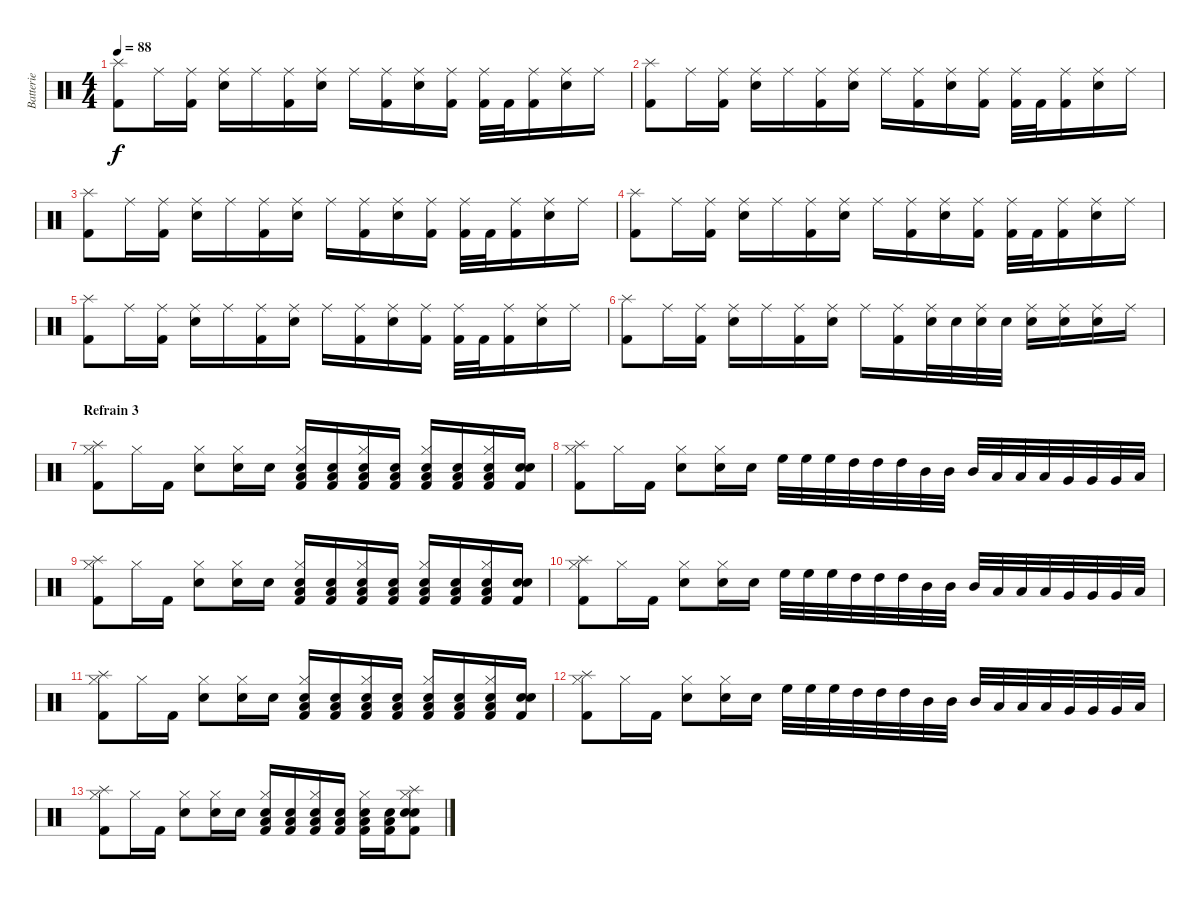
\track ("Batterie" "Batterie") {instrument percussion}
\staff {score}
\articulation defaults
\ts (4 4)
\tempo 88
\clef neutral
\ks c
("Splash (hit)" "Kick (hit) 2").8{dy f} "Ride (middle)".16 ("Ride (middle)" "Kick (hit) 2").16 ("Ride (middle)" "Snare (hit) 2").16 "Ride (middle)".16 ("Ride (middle)" "Kick (hit) 2").16 ("Ride (middle)" "Snare (hit) 2").16 "Ride (middle)".16 ("Ride (middle)" "Kick (hit) 2").16 ("Ride (middle)" "Snare (hit) 2").16 ("Ride (middle)" "Kick (hit) 2").16 ("Ride (middle)" "Kick (hit) 2").32 "Kick (hit) 2".32 ("Ride (middle)" "Kick (hit) 2").16 ("Ride (middle)" "Snare (hit) 2").16 "Ride (middle)".16 |
("Splash (hit)" "Kick (hit) 2").8 "Ride (middle)".16 ("Ride (middle)" "Kick (hit) 2").16 ("Ride (middle)" "Snare (hit) 2").16 "Ride (middle)".16 ("Ride (middle)" "Kick (hit) 2").16 ("Ride (middle)" "Snare (hit) 2").16 "Ride (middle)".16 ("Ride (middle)" "Kick (hit) 2").16 ("Ride (middle)" "Snare (hit) 2").16 ("Ride (middle)" "Kick (hit) 2").16 ("Ride (middle)" "Kick (hit) 2").32 "Kick (hit) 2".32 ("Ride (middle)" "Kick (hit) 2").16 ("Ride (middle)" "Snare (hit) 2").16 "Ride (middle)".16 |
("Splash (hit)" "Kick (hit) 2").8 "Ride (middle)".16 ("Ride (middle)" "Kick (hit) 2").16 ("Ride (middle)" "Snare (hit) 2").16 "Ride (middle)".16 ("Ride (middle)" "Kick (hit) 2").16 ("Ride (middle)" "Snare (hit) 2").16 "Ride (middle)".16 ("Ride (middle)" "Kick (hit) 2").16 ("Ride (middle)" "Snare (hit) 2").16 ("Ride (middle)" "Kick (hit) 2").16 ("Ride (middle)" "Kick (hit) 2").32 "Kick (hit) 2".32 ("Ride (middle)" "Kick (hit) 2").16 ("Ride (middle)" "Snare (hit) 2").16 "Ride (middle)".16 |
("Splash (hit)" "Kick (hit) 2").8 "Ride (middle)".16 ("Ride (middle)" "Kick (hit) 2").16 ("Ride (middle)" "Snare (hit) 2").16 "Ride (middle)".16 ("Ride (middle)" "Kick (hit) 2").16 ("Ride (middle)" "Snare (hit) 2").16 "Ride (middle)".16 ("Ride (middle)" "Kick (hit) 2").16 ("Ride (middle)" "Snare (hit) 2").16 ("Ride (middle)" "Kick (hit) 2").16 ("Ride (middle)" "Kick (hit) 2").32 "Kick (hit) 2".32 ("Ride (middle)" "Kick (hit) 2").16 ("Ride (middle)" "Snare (hit) 2").16 "Ride (middle)".16 |
("Splash (hit)" "Kick (hit) 2").8 "Ride (middle)".16 ("Ride (middle)" "Kick (hit) 2").16 ("Ride (middle)" "Snare (hit) 2").16 "Ride (middle)".16 ("Ride (middle)" "Kick (hit) 2").16 ("Ride (middle)" "Snare (hit) 2").16 "Ride (middle)".16 ("Ride (middle)" "Kick (hit) 2").16 ("Ride (middle)" "Snare (hit) 2").16 ("Ride (middle)" "Kick (hit) 2").16 ("Ride (middle)" "Kick (hit) 2").32 "Kick (hit) 2".32 ("Ride (middle)" "Kick (hit) 2").16 ("Ride (middle)" "Snare (hit) 2").16 "Ride (middle)".16 |
("Splash (hit)" "Kick (hit) 2").8 "Ride (middle)".16 ("Ride (middle)" "Kick (hit) 2").16 ("Ride (middle)" "Snare (hit) 2").16 "Ride (middle)".16 ("Ride (middle)" "Kick (hit) 2").16 ("Ride (middle)" "Snare (hit) 2").16 "Ride (middle)".16 ("Ride (middle)" "Kick (hit) 2").16 ("Ride (middle)" "Snare (hit) 2").32 "Snare (hit) 2".32 ("Ride (middle)" "Snare (hit) 2").32 "Snare (hit) 2".32 ("Ride (middle)" "Snare (hit) 2").16 ("Ride (middle)" "Snare (hit) 2").16 ("Ride (middle)" "Snare (hit) 2").16 "Ride (middle)".16 |
\section ("" "Refrain 3")
("Splash (hit)" "Hi-Hat (closed)" "Kick (hit) 2").8 "Hi-Hat (closed)".16 "Kick (hit) 2".16 ("Hi-Hat (closed)" "Snare (hit) 2").8 ("Hi-Hat (closed)" "Snare (hit) 2").16 "Snare (hit) 2".16 ("Hi-Hat (closed)" "Low Floor Tom (hit)" "Snare (hit) 2" "Kick (hit) 2").16 ("Low Floor Tom (hit)" "Snare (hit) 2" "Kick (hit) 2").16 ("Hi-Hat (closed)" "Low Floor Tom (hit)" "Snare (hit) 2" "Kick (hit) 2").16 ("Low Floor Tom (hit)" "Snare (hit) 2" "Kick (hit) 2").16 ("Hi-Hat (closed)" "Low Floor Tom (hit)" "Snare (hit) 2" "Kick (hit) 2").16 ("Low Floor Tom (hit)" "Snare (hit) 2" "Kick (hit) 2").16 ("Hi-Hat (closed)" "Low Floor Tom (hit)" "Snare (hit) 2" "Kick (hit) 2").16 ("Snare (hit)" "Snare (hit) 2" "Kick (hit) 2").16 |
("Splash (hit)" "Hi-Hat (closed)" "Kick (hit) 2").8 "Hi-Hat (closed)".16 "Kick (hit) 2".16 ("Hi-Hat (closed)" "Snare (hit) 2").8 ("Hi-Hat (closed)" "Snare (hit) 2").16 "Snare (hit) 2".16 "High Floor Tom (hit)".32 "High Floor Tom (hit)".32 "High Floor Tom (hit)".32 "High Tom (hit)".32 "High Tom (hit)".32 "High Tom (hit)".32 "Mid Tom (hit)".32 "Mid Tom (hit)".32 "Mid Tom (hit)".32 "Low Tom (hit)".32 "Low Tom (hit)".32 "Low Tom (hit)".32 "Very Low Tom (hit)".32 "Very Low Tom (hit)".32 "Very Low Tom (hit)".32 "Low Floor Tom (hit)".32 |
("Splash (hit)" "Hi-Hat (closed)" "Kick (hit) 2").8 "Hi-Hat (closed)".16 "Kick (hit) 2".16 ("Hi-Hat (closed)" "Snare (hit) 2").8 ("Hi-Hat (closed)" "Snare (hit) 2").16 "Snare (hit) 2".16 ("Hi-Hat (closed)" "Low Floor Tom (hit)" "Snare (hit) 2" "Kick (hit) 2").16 ("Low Floor Tom (hit)" "Snare (hit) 2" "Kick (hit) 2").16 ("Hi-Hat (closed)" "Low Floor Tom (hit)" "Snare (hit) 2" "Kick (hit) 2").16 ("Low Floor Tom (hit)" "Snare (hit) 2" "Kick (hit) 2").16 ("Hi-Hat (closed)" "Low Floor Tom (hit)" "Snare (hit) 2" "Kick (hit) 2").16 ("Low Floor Tom (hit)" "Snare (hit) 2" "Kick (hit) 2").16 ("Hi-Hat (closed)" "Low Floor Tom (hit)" "Snare (hit) 2" "Kick (hit) 2").16 ("Snare (hit)" "Snare (hit) 2" "Kick (hit) 2").16 |
("Splash (hit)" "Hi-Hat (closed)" "Kick (hit) 2").8 "Hi-Hat (closed)".16 "Kick (hit) 2".16 ("Hi-Hat (closed)" "Snare (hit) 2").8 ("Hi-Hat (closed)" "Snare (hit) 2").16 "Snare (hit) 2".16 "High Floor Tom (hit)".32 "High Floor Tom (hit)".32 "High Floor Tom (hit)".32 "High Tom (hit)".32 "High Tom (hit)".32 "High Tom (hit)".32 "Mid Tom (hit)".32 "Mid Tom (hit)".32 "Mid Tom (hit)".32 "Low Tom (hit)".32 "Low Tom (hit)".32 "Low Tom (hit)".32 "Very Low Tom (hit)".32 "Very Low Tom (hit)".32 "Very Low Tom (hit)".32 "Low Floor Tom (hit)".32 |
("Splash (hit)" "Hi-Hat (closed)" "Kick (hit) 2").8 "Hi-Hat (closed)".16 "Kick (hit) 2".16 ("Hi-Hat (closed)" "Snare (hit) 2").8 ("Hi-Hat (closed)" "Snare (hit) 2").16 "Snare (hit) 2".16 ("Hi-Hat (closed)" "Low Floor Tom (hit)" "Snare (hit) 2" "Kick (hit) 2").16 ("Low Floor Tom (hit)" "Snare (hit) 2" "Kick (hit) 2").16 ("Hi-Hat (closed)" "Low Floor Tom (hit)" "Snare (hit) 2" "Kick (hit) 2").16 ("Low Floor Tom (hit)" "Snare (hit) 2" "Kick (hit) 2").16 ("Hi-Hat (closed)" "Low Floor Tom (hit)" "Snare (hit) 2" "Kick (hit) 2").16 ("Low Floor Tom (hit)" "Snare (hit) 2" "Kick (hit) 2").16 ("Hi-Hat (closed)" "Low Floor Tom (hit)" "Snare (hit) 2" "Kick (hit) 2").16 ("Snare (hit)" "Snare (hit) 2" "Kick (hit) 2").16 |
("Splash (hit)" "Hi-Hat (closed)" "Kick (hit) 2").8 "Hi-Hat (closed)".16 "Kick (hit) 2".16 ("Hi-Hat (closed)" "Snare (hit) 2").8 ("Hi-Hat (closed)" "Snare (hit) 2").16 "Snare (hit) 2".16 "High Floor Tom (hit)".32 "High Floor Tom (hit)".32 "High Floor Tom (hit)".32 "High Tom (hit)".32 "High Tom (hit)".32 "High Tom (hit)".32 "Mid Tom (hit)".32 "Mid Tom (hit)".32 "Mid Tom (hit)".32 "Low Tom (hit)".32 "Low Tom (hit)".32 "Low Tom (hit)".32 "Very Low Tom (hit)".32 "Very Low Tom (hit)".32 "Very Low Tom (hit)".32 "Low Floor Tom (hit)".32 |
("Splash (hit)" "Hi-Hat (closed)" "Kick (hit) 2").8 "Hi-Hat (closed)".16 "Kick (hit) 2".16 ("Hi-Hat (closed)" "Snare (hit) 2").8 ("Hi-Hat (closed)" "Snare (hit) 2").16 "Snare (hit) 2".16 ("Hi-Hat (closed)" "Low Floor Tom (hit)" "Snare (hit) 2" "Kick (hit) 2").16 ("Low Floor Tom (hit)" "Snare (hit) 2" "Kick (hit) 2").16 ("Hi-Hat (closed)" "Low Floor Tom (hit)" "Snare (hit) 2" "Kick (hit) 2").16 ("Low Floor Tom (hit)" "Snare (hit) 2" "Kick (hit) 2").16 ("Hi-Hat (closed)" "Low Floor Tom (hit)" "Snare (hit) 2" "Kick (hit) 2").16 ("Low Floor Tom (hit)" "Snare (hit) 2" "Kick (hit) 2").16 ("Splash (hit)" "Hi-Hat (closed)" "Snare (hit)" "Snare (hit) 2" "Kick (hit) 2").8
